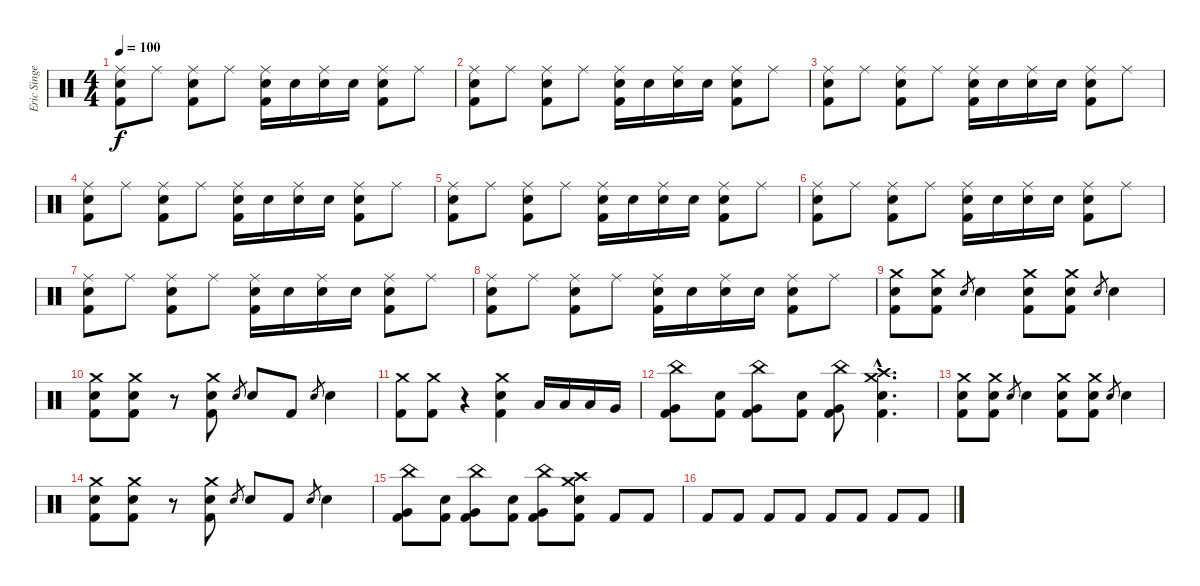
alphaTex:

\track ("Eric Singer" "Eric Singe") {instrument percussion}
\staff {score}
\articulation defaults
\ts (4 4)
\tempo 100
\clef neutral
\ks c
("Ride (middle)" "Snare (hit) 2" "Kick (hit) 2").8{dy f} "Ride (middle)".8 ("Ride (middle)" "Snare (hit) 2" "Kick (hit) 2").8 "Ride (middle)".8 ("Ride (middle)" "Snare (hit) 2" "Kick (hit) 2").16 "Snare (hit) 2".16 ("Ride (middle)" "Snare (hit) 2").16 "Snare (hit) 2".16 ("Ride (middle)" "Snare (hit) 2" "Kick (hit) 2").8 "Ride (middle)".8 |
("Ride (middle)" "Snare (hit) 2" "Kick (hit) 2").8 "Ride (middle)".8 ("Ride (middle)" "Snare (hit) 2" "Kick (hit) 2").8 "Ride (middle)".8 ("Ride (middle)" "Snare (hit) 2" "Kick (hit) 2").16 "Snare (hit) 2".16 ("Ride (middle)" "Snare (hit) 2").16 "Snare (hit) 2".16 ("Ride (middle)" "Snare (hit) 2" "Kick (hit) 2").8 "Ride (middle)".8 |
("Ride (middle)" "Snare (hit) 2" "Kick (hit) 2").8 "Ride (middle)".8 ("Ride (middle)" "Snare (hit) 2" "Kick (hit) 2").8 "Ride (middle)".8 ("Ride (middle)" "Snare (hit) 2" "Kick (hit) 2").16 "Snare (hit) 2".16 ("Ride (middle)" "Snare (hit) 2").16 "Snare (hit) 2".16 ("Ride (middle)" "Snare (hit) 2" "Kick (hit) 2").8 "Ride (middle)".8 |
("Ride (middle)" "Snare (hit) 2" "Kick (hit) 2").8 "Ride (middle)".8 ("Ride (middle)" "Snare (hit) 2" "Kick (hit) 2").8 "Ride (middle)".8 ("Ride (middle)" "Snare (hit) 2" "Kick (hit) 2").16 "Snare (hit) 2".16 ("Ride (middle)" "Snare (hit) 2").16 "Snare (hit) 2".16 ("Ride (middle)" "Snare (hit) 2" "Kick (hit) 2").8 "Ride (middle)".8 |
("Ride (middle)" "Snare (hit) 2" "Kick (hit) 2").8 "Ride (middle)".8 ("Ride (middle)" "Snare (hit) 2" "Kick (hit) 2").8 "Ride (middle)".8 ("Ride (middle)" "Snare (hit) 2" "Kick (hit) 2").16 "Snare (hit) 2".16 ("Ride (middle)" "Snare (hit) 2").16 "Snare (hit) 2".16 ("Ride (middle)" "Snare (hit) 2" "Kick (hit) 2").8 "Ride (middle)".8 |
("Ride (middle)" "Snare (hit) 2" "Kick (hit) 2").8 "Ride (middle)".8 ("Ride (middle)" "Snare (hit) 2" "Kick (hit) 2").8 "Ride (middle)".8 ("Ride (middle)" "Snare (hit) 2" "Kick (hit) 2").16 "Snare (hit) 2".16 ("Ride (middle)" "Snare (hit) 2").16 "Snare (hit) 2".16 ("Ride (middle)" "Snare (hit) 2" "Kick (hit) 2").8 "Ride (middle)".8 |
("Ride (middle)" "Snare (hit) 2" "Kick (hit) 2").8 "Ride (middle)".8 ("Ride (middle)" "Snare (hit) 2" "Kick (hit) 2").8 "Ride (middle)".8 ("Ride (middle)" "Snare (hit) 2" "Kick (hit) 2").16 "Snare (hit) 2".16 ("Ride (middle)" "Snare (hit) 2").16 "Snare (hit) 2".16 ("Ride (middle)" "Snare (hit) 2" "Kick (hit) 2").8 "Ride (middle)".8 |
("Ride (middle)" "Snare (hit) 2" "Kick (hit) 2").8 "Ride (middle)".8 ("Ride (middle)" "Snare (hit) 2" "Kick (hit) 2").8 "Ride (middle)".8 ("Ride (middle)" "Snare (hit) 2" "Kick (hit) 2").16 "Snare (hit) 2".16 ("Ride (middle)" "Snare (hit) 2").16 "Snare (hit) 2".16 ("Ride (middle)" "Snare (hit) 2" "Kick (hit) 2").8 "Ride (middle)".8 |
("Crash medium (hit)" "Snare (hit) 2" "Kick (hit) 2").8 ("Crash medium (hit)" "Snare (hit) 2" "Kick (hit) 2").8 "Electric Snare (hit)".8{gr} "Electric Snare (hit)".4 ("Crash medium (hit)" "Snare (hit) 2" "Kick (hit) 2").8 ("Crash medium (hit)" "Snare (hit) 2" "Kick (hit) 2").8 "Electric Snare (hit)".8{gr} "Electric Snare (hit)".4 |
("Crash medium (hit)" "Snare (hit) 2" "Kick (hit) 2").8 ("Crash medium (hit)" "Snare (hit) 2" "Kick (hit) 2").8 r.8 ("Crash medium (hit)" "Snare (hit) 2" "Kick (hit) 2").8 "Electric Snare (hit)".8{gr} "Electric Snare (hit)".8 "Kick (hit) 2".8 "Electric Snare (hit)".8{gr} "Electric Snare (hit)".4 |
("Kick (hit) 2" "Crash medium (hit)").8 ("Kick (hit) 2" "Crash medium (hit)").8 r.4 ("Crash medium (hit)" "Snare (hit) 2" "Kick (hit) 2").4 "Low Tom (hit)".16 "Low Tom (hit)".16 "Low Tom (hit)".16 "Very Low Tom (hit)".16 |
("Very Low Tom (hit)" "China (hit)" "Kick (hit) 2").8 ("Kick (hit) 2" "Snare (hit) 2").8 ("Very Low Tom (hit)" "China (hit)" "Kick (hit) 2").8 ("Kick (hit) 2" "Snare (hit) 2").8 ("Very Low Tom (hit)" "China (hit)" "Kick (hit) 2").8 ("Crash medium (hit)"{hac} "Crash high (hit)"{hac} "Kick (hit) 2"{hac} "Snare (hit) 2"{hac}).4{d} |
("Crash medium (hit)" "Snare (hit) 2" "Kick (hit) 2").8 ("Crash medium (hit)" "Snare (hit) 2" "Kick (hit) 2").8 "Electric Snare (hit)".8{gr} "Electric Snare (hit)".4 ("Crash medium (hit)" "Snare (hit) 2" "Kick (hit) 2").8 ("Crash medium (hit)" "Snare (hit) 2" "Kick (hit) 2").8 "Electric Snare (hit)".8{gr} "Electric Snare (hit)".4 |
("Crash medium (hit)" "Snare (hit) 2" "Kick (hit) 2").8 ("Crash medium (hit)" "Snare (hit) 2" "Kick (hit) 2").8 r.8 ("Crash medium (hit)" "Snare (hit) 2" "Kick (hit) 2").8 "Electric Snare (hit)".8{gr} "Electric Snare (hit)".8 "Kick (hit) 2".8 "Electric Snare (hit)".8{gr} "Electric Snare (hit)".4 |
("Very Low Tom (hit)" "China (hit)" "Kick (hit) 2").8 ("Kick (hit) 2" "Snare (hit) 2").8 ("Very Low Tom (hit)" "China (hit)" "Kick (hit) 2").8 ("Kick (hit) 2" "Snare (hit) 2").8 ("Very Low Tom (hit)" "China (hit)" "Kick (hit) 2").8 ("Crash medium (hit)" "Crash high (hit)" "Kick (hit) 2" "Snare (hit) 2").8 "Kick (hit) 2".8 "Kick (hit) 2".8 |
"Kick (hit) 2".8 "Kick (hit) 2".8 "Kick (hit) 2".8 "Kick (hit) 2".8 "Kick (hit) 2".8 "Kick (hit) 2".8 "Kick (hit) 2".8 "Kick (hit) 2".8
